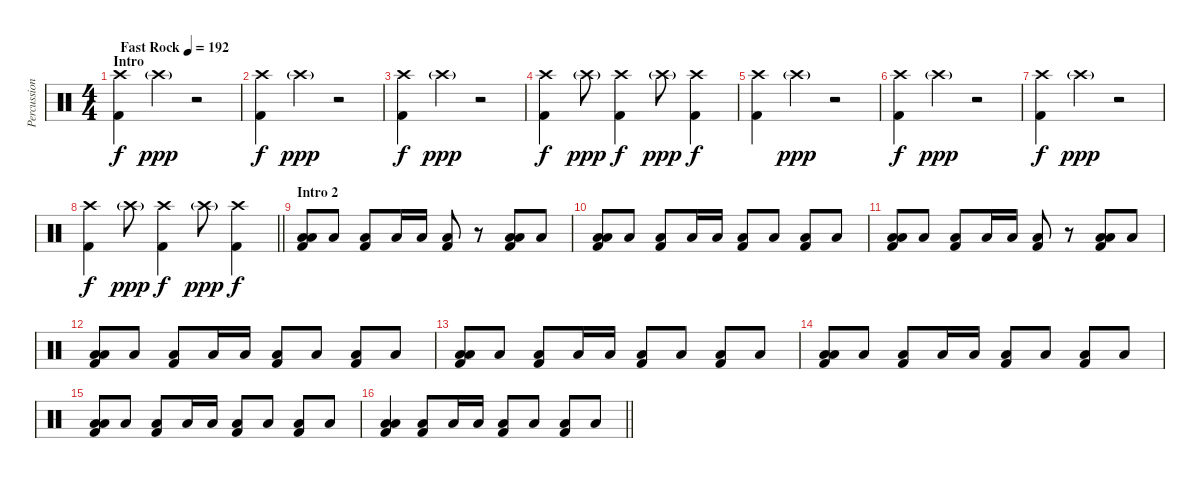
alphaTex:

\track ("Percussion" "Percussion") {instrument percussion}
\staff {score}
\articulation defaults
\ts (4 4)
\section ("" "Intro")
\tempo (192 "Fast Rock")
\clef neutral
\ks c
("Crash high (hit)" "Kick (hit) 2").4{dy f} "Crash high (hit)"{g}.4{dy ppp} r.2 |
("Crash high (hit)" "Kick (hit) 2").4{dy f} "Crash high (hit)"{g}.4{dy ppp} r.2 |
("Crash high (hit)" "Kick (hit) 2").4{dy f} "Crash high (hit)"{g}.4{dy ppp} r.2 |
("Crash high (hit)" "Kick (hit) 2").4{dy f} "Crash high (hit)"{g}.8{dy ppp} ("Crash high (hit)" "Kick (hit) 2").4{dy f} "Crash high (hit)"{g}.8{dy ppp} ("Crash high (hit)" "Kick (hit) 2").4{dy f} |
("Crash high (hit)" "Kick (hit) 2").4 "Crash high (hit)"{g}.4{dy ppp} r.2 |
("Crash high (hit)" "Kick (hit) 2").4{dy f} "Crash high (hit)"{g}.4{dy ppp} r.2 |
("Crash high (hit)" "Kick (hit) 2").4{dy f} "Crash high (hit)"{g}.4{dy ppp} r.2 |
\barLineRight lightlight
("Crash high (hit)" "Kick (hit) 2").4{dy f} "Crash high (hit)"{g}.8{dy ppp} ("Crash high (hit)" "Kick (hit) 2").4{dy f} "Crash high (hit)"{g}.8{dy ppp} ("Crash high (hit)" "Kick (hit) 2").4{dy f} |
\section ("" "Intro 2")
("Low Tom (hit)" "Low Floor Tom (hit)" "Kick (hit) 2").8 "Low Floor Tom (hit)".8 ("Low Floor Tom (hit)" "Kick (hit) 2").8 "Low Floor Tom (hit)".16 "Low Tom (hit)".16 ("Low Floor Tom (hit)" "Kick (hit) 2").8 r.8 ("Low Tom (hit)" "Low Floor Tom (hit)" "Kick (hit) 2").8 "Low Floor Tom (hit)".8 |
("Low Tom (hit)" "Low Floor Tom (hit)" "Kick (hit) 2").8 "Low Floor Tom (hit)".8 ("Low Floor Tom (hit)" "Kick (hit) 2").8 "Low Floor Tom (hit)".16 "Low Tom (hit)".16 ("Low Floor Tom (hit)" "Kick (hit) 2").8 "Low Floor Tom (hit)".8 ("Low Floor Tom (hit)" "Kick (hit) 2").8 "Low Floor Tom (hit)".8 |
("Low Tom (hit)" "Low Floor Tom (hit)" "Kick (hit) 2").8 "Low Floor Tom (hit)".8 ("Low Floor Tom (hit)" "Kick (hit) 2").8 "Low Floor Tom (hit)".16 "Low Tom (hit)".16 ("Low Floor Tom (hit)" "Kick (hit) 2").8 r.8 ("Low Tom (hit)" "Low Floor Tom (hit)" "Kick (hit) 2").8 "Low Floor Tom (hit)".8 |
("Low Tom (hit)" "Low Floor Tom (hit)" "Kick (hit) 2").8 "Low Floor Tom (hit)".8 ("Low Floor Tom (hit)" "Kick (hit) 2").8 "Low Floor Tom (hit)".16 "Low Tom (hit)".16 ("Low Floor Tom (hit)" "Kick (hit) 2").8 "Low Floor Tom (hit)".8 ("Low Floor Tom (hit)" "Kick (hit) 2").8 "Low Floor Tom (hit)".8 |
("Low Tom (hit)" "Low Floor Tom (hit)" "Kick (hit) 2").8 "Low Floor Tom (hit)".8 ("Low Floor Tom (hit)" "Kick (hit) 2").8 "Low Floor Tom (hit)".16 "Low Tom (hit)".16 ("Low Floor Tom (hit)" "Kick (hit) 2").8 "Low Floor Tom (hit)".8 ("Low Floor Tom (hit)" "Kick (hit) 2").8 "Low Floor Tom (hit)".8 |
("Low Tom (hit)" "Low Floor Tom (hit)" "Kick (hit) 2").8 "Low Floor Tom (hit)".8 ("Low Floor Tom (hit)" "Kick (hit) 2").8 "Low Floor Tom (hit)".16 "Low Tom (hit)".16 ("Low Floor Tom (hit)" "Kick (hit) 2").8 "Low Floor Tom (hit)".8 ("Low Floor Tom (hit)" "Kick (hit) 2").8 "Low Floor Tom (hit)".8 |
("Low Tom (hit)" "Low Floor Tom (hit)" "Kick (hit) 2").8 "Low Floor Tom (hit)".8 ("Low Floor Tom (hit)" "Kick (hit) 2").8 "Low Floor Tom (hit)".16 "Low Tom (hit)".16 ("Low Floor Tom (hit)" "Kick (hit) 2").8 "Low Floor Tom (hit)".8 ("Low Floor Tom (hit)" "Kick (hit) 2").8 "Low Floor Tom (hit)".8 |
\barLineRight lightlight
("Low Tom (hit)" "Low Floor Tom (hit)" "Kick (hit) 2").4 ("Low Floor Tom (hit)" "Kick (hit) 2").8 "Low Floor Tom (hit)".16 "Low Tom (hit)".16 ("Low Floor Tom (hit)" "Kick (hit) 2").8 "Low Floor Tom (hit)".8 ("Low Floor Tom (hit)" "Kick (hit) 2").8 "Low Floor Tom (hit)".8
